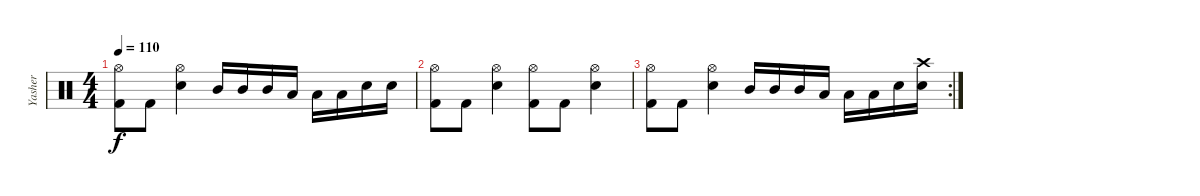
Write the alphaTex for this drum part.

\track ("Yasher" "Yasher") {instrument percussion}
\staff {score}
\articulation defaults
\ts (4 4)
\tempo 110
\clef neutral
\ks c
("Hi-Hat (open)" "Kick (hit) 2").8{dy f} "Kick (hit) 2".8 ("Hi-Hat (open)" "Electric Snare (hit)").4 "Mid Tom (hit)".16 "Mid Tom (hit)".16 "Mid Tom (hit)".16 "Low Tom (hit)".16 "Low Tom (hit)".16 "Low Tom (hit)".16 "Electric Snare (hit)".16 "Electric Snare (hit)".16 |
("Hi-Hat (open)" "Kick (hit) 2").8 "Kick (hit) 2".8 ("Hi-Hat (open)" "Electric Snare (hit)").4 ("Hi-Hat (open)" "Kick (hit) 2").8 "Kick (hit) 2".8 ("Hi-Hat (open)" "Electric Snare (hit)").4 |
\rc 2
("Hi-Hat (open)" "Kick (hit) 2").8 "Kick (hit) 2".8 ("Hi-Hat (open)" "Electric Snare (hit)").4 "Mid Tom (hit)".16 "Mid Tom (hit)".16 "Mid Tom (hit)".16 "Low Tom (hit)".16 "Low Tom (hit)".16 "Low Tom (hit)".16 "Electric Snare (hit)".16 ("Electric Snare (hit)" "Crash high (hit)").16
